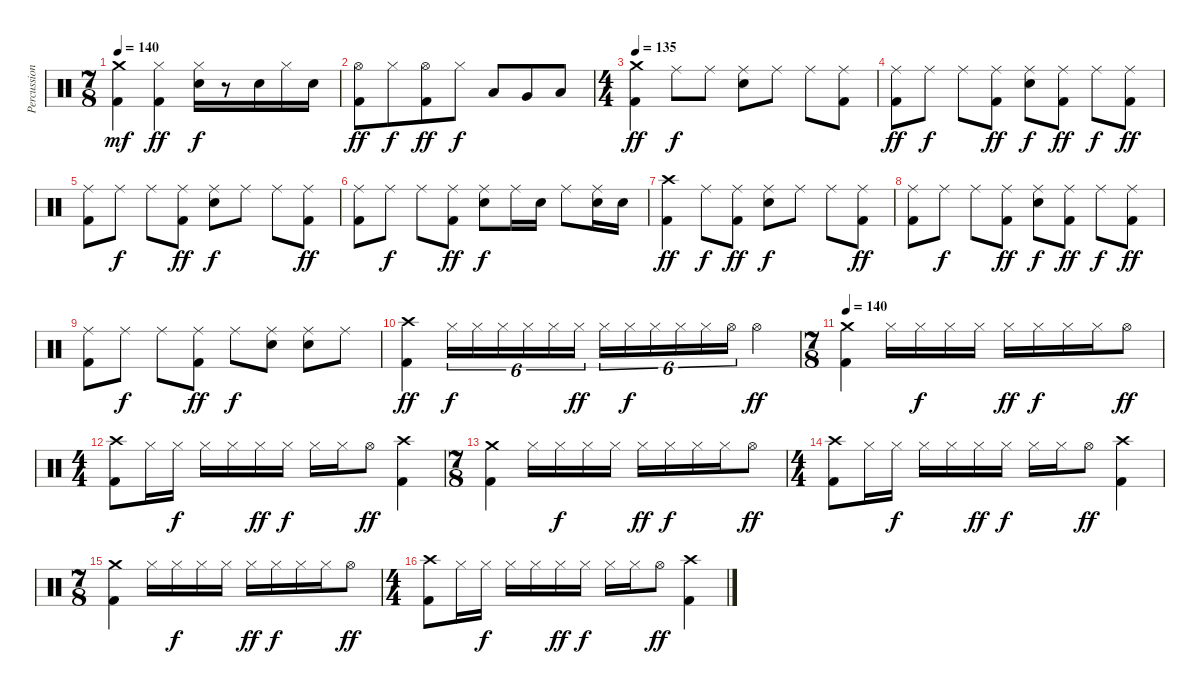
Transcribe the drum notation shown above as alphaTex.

\track ("Percussion" "Percussion") {instrument percussion}
\staff {score}
\articulation defaults
\ts (7 8)
\tempo 140
\clef neutral
\ks c
("Kick (hit) 2" "Crash medium (hit)").4{dy mf} ("Kick (hit) 2" "Hi-Hat (closed)").4{dy ff} ("Snare (hit) 2" "Hi-Hat (closed)").16{dy f} r.8 "Snare (hit) 2".16 "Hi-Hat (closed)".16 "Snare (hit) 2".16 |
("Kick (hit) 2" "Hi-Hat (open)").8{dy ff} "Hi-Hat (closed)".8{dy f} ("Kick (hit) 2" "Hi-Hat (open)").8{dy ff} "Hi-Hat (closed)".8{dy f} "Low Tom (hit)".8 "Very Low Tom (hit)".8 "Low Floor Tom (hit)".8 |
\ts (4 4)
\tempo 135
("Kick (hit) 2" "Crash medium (hit)").4{dy ff} "Ride (middle)".8{dy f} "Ride (middle)".8 ("Snare (hit) 2" "Ride (middle)").8 "Ride (middle)".8 "Ride (middle)".8 ("Kick (hit) 2" "Ride (middle)").8 |
("Kick (hit) 2" "Ride (middle)").8{dy ff} "Ride (middle)".8{dy f} "Ride (middle)".8 ("Kick (hit) 2" "Ride (middle)").8{dy ff} ("Snare (hit) 2" "Ride (middle)").8{dy f} ("Kick (hit) 2" "Ride (middle)").8{dy ff} "Ride (middle)".8{dy f} ("Kick (hit) 2" "Ride (middle)").8{dy ff} |
("Kick (hit) 2" "Ride (middle)").8 "Ride (middle)".8{dy f} "Ride (middle)".8 ("Kick (hit) 2" "Ride (middle)").8{dy ff} ("Snare (hit) 2" "Ride (middle)").8{dy f} "Ride (middle)".8 "Ride (middle)".8 ("Kick (hit) 2" "Ride (middle)").8{dy ff} |
("Kick (hit) 2" "Ride (middle)").8 "Ride (middle)".8{dy f} "Ride (middle)".8 ("Kick (hit) 2" "Ride (middle)").8{dy ff} ("Snare (hit) 2" "Ride (middle)").8{dy f} "Ride (middle)".16 "Snare (hit) 2".16 "Ride (middle)".8 ("Snare (hit) 2" "Ride (middle)").16 "Snare (hit) 2".16 |
("Kick (hit) 2" "Crash high (hit)").4{dy ff} "Ride (middle)".8{dy f} ("Kick (hit) 2" "Ride (middle)").8{dy ff} ("Snare (hit) 2" "Ride (middle)").8{dy f} "Ride (middle)".8 "Ride (middle)".8 ("Kick (hit) 2" "Ride (middle)").8{dy ff} |
("Kick (hit) 2" "Ride (middle)").8 "Ride (middle)".8{dy f} "Ride (middle)".8 ("Kick (hit) 2" "Ride (middle)").8{dy ff} ("Snare (hit) 2" "Ride (middle)").8{dy f} ("Kick (hit) 2" "Ride (middle)").8{dy ff} "Ride (middle)".8{dy f} ("Kick (hit) 2" "Ride (middle)").8{dy ff} |
("Kick (hit) 2" "Ride (middle)").8 "Ride (middle)".8{dy f} "Ride (middle)".8 ("Kick (hit) 2" "Ride (middle)").8{dy ff} "Ride (middle)".8{dy f} ("Snare (hit) 2" "Ride (middle)").8 ("Snare (hit) 2" "Ride (middle)").8 "Ride (middle)".8 |
("Kick (hit) 2" "Crash high (hit)").4{dy ff} "Hi-Hat (closed)".16{tu (6 4) dy f} "Hi-Hat (closed)".16{tu (6 4)} "Hi-Hat (closed)".16{tu (6 4)} "Hi-Hat (closed)".16{tu (6 4)} "Hi-Hat (closed)".16{tu (6 4)} "Hi-Hat (closed)".16{tu (6 4) dy ff} "Hi-Hat (closed)".16{tu (6 4)} "Hi-Hat (closed)".16{tu (6 4) dy f} "Hi-Hat (closed)".16{tu (6 4)} "Hi-Hat (closed)".16{tu (6 4)} "Hi-Hat (closed)".16{tu (6 4)} "Hi-Hat (open)".16{tu (6 4)} "Hi-Hat (open)".4{dy ff} |
\ts (7 8)
\tempo 140
("Kick (hit) 2" "Crash medium (hit)").4 "Hi-Hat (closed)".16 "Hi-Hat (closed)".16{dy f} "Hi-Hat (closed)".16 "Hi-Hat (closed)".16 "Hi-Hat (closed)".16{dy ff} "Hi-Hat (closed)".16{dy f} "Hi-Hat (closed)".16 "Hi-Hat (closed)".16 "Hi-Hat (open)".8{dy ff} |
\ts (4 4)
("Kick (hit) 2" "Crash high (hit)").8 "Hi-Hat (closed)".16 "Hi-Hat (closed)".16{dy f} "Hi-Hat (closed)".16 "Hi-Hat (closed)".16 "Hi-Hat (closed)".16{dy ff} "Hi-Hat (closed)".16{dy f} "Hi-Hat (closed)".16 "Hi-Hat (closed)".16 "Hi-Hat (open)".8{dy ff} ("Kick (hit) 2" "Crash high (hit)").4 |
\ts (7 8)
("Kick (hit) 2" "Crash medium (hit)").4 "Hi-Hat (closed)".16 "Hi-Hat (closed)".16{dy f} "Hi-Hat (closed)".16 "Hi-Hat (closed)".16 "Hi-Hat (closed)".16{dy ff} "Hi-Hat (closed)".16{dy f} "Hi-Hat (closed)".16 "Hi-Hat (closed)".16 "Hi-Hat (open)".8{dy ff} |
\ts (4 4)
("Kick (hit) 2" "Crash high (hit)").8 "Hi-Hat (closed)".16 "Hi-Hat (closed)".16{dy f} "Hi-Hat (closed)".16 "Hi-Hat (closed)".16 "Hi-Hat (closed)".16{dy ff} "Hi-Hat (closed)".16{dy f} "Hi-Hat (closed)".16 "Hi-Hat (closed)".16 "Hi-Hat (open)".8{dy ff} ("Kick (hit) 2" "Crash high (hit)").4 |
\ts (7 8)
("Kick (hit) 2" "Crash medium (hit)").4 "Hi-Hat (closed)".16 "Hi-Hat (closed)".16{dy f} "Hi-Hat (closed)".16 "Hi-Hat (closed)".16 "Hi-Hat (closed)".16{dy ff} "Hi-Hat (closed)".16{dy f} "Hi-Hat (closed)".16 "Hi-Hat (closed)".16 "Hi-Hat (open)".8{dy ff} |
\ts (4 4)
("Kick (hit) 2" "Crash high (hit)").8 "Hi-Hat (closed)".16 "Hi-Hat (closed)".16{dy f} "Hi-Hat (closed)".16 "Hi-Hat (closed)".16 "Hi-Hat (closed)".16{dy ff} "Hi-Hat (closed)".16{dy f} "Hi-Hat (closed)".16 "Hi-Hat (closed)".16 "Hi-Hat (open)".8{dy ff} ("Kick (hit) 2" "Crash high (hit)").4
